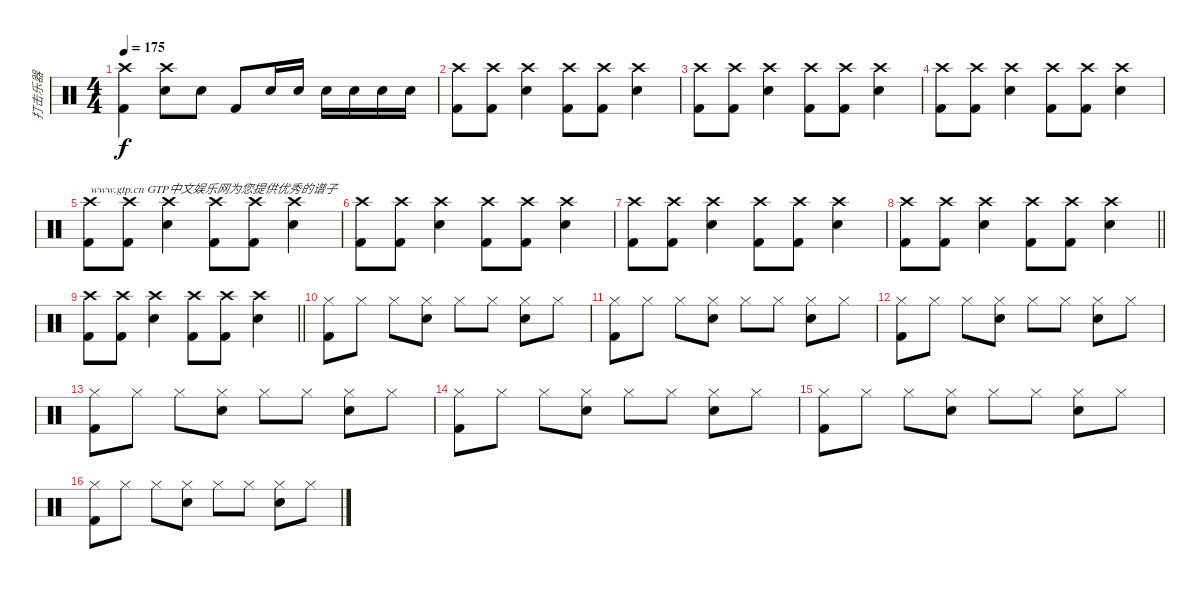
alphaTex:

\track ("打击乐器" "打击乐器") {instrument percussion}
\staff {score}
\articulation defaults
\ts (4 4)
\tempo 175
\clef neutral
\ks c
("Crash high (hit)" "Kick (hit) 2").4{dy f} ("Crash high (hit)" "Electric Snare (hit)").8 "Electric Snare (hit)".8 "Kick (hit) 2".8 "Electric Snare (hit)".16 "Electric Snare (hit)".16 "Electric Snare (hit)".16 "Electric Snare (hit)".16 "Electric Snare (hit)".16 "Electric Snare (hit)".16 |
("Crash high (hit)" "Kick (hit) 2").8 ("Crash high (hit)" "Kick (hit) 2").8 ("Crash high (hit)" "Electric Snare (hit)").4 ("Crash high (hit)" "Kick (hit) 2").8 ("Crash high (hit)" "Kick (hit) 2").8 ("Crash high (hit)" "Electric Snare (hit)").4 |
("Crash high (hit)" "Kick (hit) 2").8 ("Crash high (hit)" "Kick (hit) 2").8 ("Crash high (hit)" "Electric Snare (hit)").4 ("Crash high (hit)" "Kick (hit) 2").8 ("Crash high (hit)" "Kick (hit) 2").8 ("Crash high (hit)" "Electric Snare (hit)").4 |
("Crash high (hit)" "Kick (hit) 2").8 ("Crash high (hit)" "Kick (hit) 2").8 ("Crash high (hit)" "Electric Snare (hit)").4 ("Crash high (hit)" "Kick (hit) 2").8 ("Crash high (hit)" "Kick (hit) 2").8 ("Crash high (hit)" "Electric Snare (hit)").4 |
("Crash high (hit)" "Kick (hit) 2").8{txt "www.gtp.cn GTP中文娱乐网为您提供优秀的谱子"} ("Crash high (hit)" "Kick (hit) 2").8 ("Crash high (hit)" "Electric Snare (hit)").4 ("Crash high (hit)" "Kick (hit) 2").8 ("Crash high (hit)" "Kick (hit) 2").8 ("Crash high (hit)" "Electric Snare (hit)").4 |
("Crash high (hit)" "Kick (hit) 2").8 ("Crash high (hit)" "Kick (hit) 2").8 ("Crash high (hit)" "Electric Snare (hit)").4 ("Crash high (hit)" "Kick (hit) 2").8 ("Crash high (hit)" "Kick (hit) 2").8 ("Crash high (hit)" "Electric Snare (hit)").4 |
("Crash high (hit)" "Kick (hit) 2").8 ("Crash high (hit)" "Kick (hit) 2").8 ("Crash high (hit)" "Electric Snare (hit)").4 ("Crash high (hit)" "Kick (hit) 2").8 ("Crash high (hit)" "Kick (hit) 2").8 ("Crash high (hit)" "Electric Snare (hit)").4 |
\barLineRight lightlight
("Crash high (hit)" "Kick (hit) 2").8 ("Crash high (hit)" "Kick (hit) 2").8 ("Crash high (hit)" "Electric Snare (hit)").4 ("Crash high (hit)" "Kick (hit) 2").8 ("Crash high (hit)" "Kick (hit) 2").8 ("Crash high (hit)" "Electric Snare (hit)").4 |
\barLineRight lightlight
("Crash high (hit)" "Kick (hit) 2").8 ("Crash high (hit)" "Kick (hit) 2").8 ("Crash high (hit)" "Electric Snare (hit)").4 ("Crash high (hit)" "Kick (hit) 2").8 ("Crash high (hit)" "Kick (hit) 2").8 ("Crash high (hit)" "Electric Snare (hit)").4 |
("Hi-Hat (closed)" "Kick (hit) 2").8 "Hi-Hat (closed)".8 "Hi-Hat (closed)".8 ("Hi-Hat (closed)" "Electric Snare (hit)").8 "Hi-Hat (closed)".8 "Hi-Hat (closed)".8 ("Hi-Hat (closed)" "Electric Snare (hit)").8 "Hi-Hat (closed)".8 |
("Hi-Hat (closed)" "Kick (hit) 2").8 "Hi-Hat (closed)".8 "Hi-Hat (closed)".8 ("Hi-Hat (closed)" "Electric Snare (hit)").8 "Hi-Hat (closed)".8 "Hi-Hat (closed)".8 ("Hi-Hat (closed)" "Electric Snare (hit)").8 "Hi-Hat (closed)".8 |
("Hi-Hat (closed)" "Kick (hit) 2").8 "Hi-Hat (closed)".8 "Hi-Hat (closed)".8 ("Hi-Hat (closed)" "Electric Snare (hit)").8 "Hi-Hat (closed)".8 "Hi-Hat (closed)".8 ("Hi-Hat (closed)" "Electric Snare (hit)").8 "Hi-Hat (closed)".8 |
("Hi-Hat (closed)" "Kick (hit) 2").8 "Hi-Hat (closed)".8 "Hi-Hat (closed)".8 ("Hi-Hat (closed)" "Electric Snare (hit)").8 "Hi-Hat (closed)".8 "Hi-Hat (closed)".8 ("Hi-Hat (closed)" "Electric Snare (hit)").8 "Hi-Hat (closed)".8 |
("Hi-Hat (closed)" "Kick (hit) 2").8 "Hi-Hat (closed)".8 "Hi-Hat (closed)".8 ("Hi-Hat (closed)" "Electric Snare (hit)").8 "Hi-Hat (closed)".8 "Hi-Hat (closed)".8 ("Hi-Hat (closed)" "Electric Snare (hit)").8 "Hi-Hat (closed)".8 |
("Hi-Hat (closed)" "Kick (hit) 2").8 "Hi-Hat (closed)".8 "Hi-Hat (closed)".8 ("Hi-Hat (closed)" "Electric Snare (hit)").8 "Hi-Hat (closed)".8 "Hi-Hat (closed)".8 ("Hi-Hat (closed)" "Electric Snare (hit)").8 "Hi-Hat (closed)".8 |
("Hi-Hat (closed)" "Kick (hit) 2").8 "Hi-Hat (closed)".8 "Hi-Hat (closed)".8 ("Hi-Hat (closed)" "Electric Snare (hit)").8 "Hi-Hat (closed)".8 "Hi-Hat (closed)".8 ("Hi-Hat (closed)" "Electric Snare (hit)").8 "Hi-Hat (closed)".8
